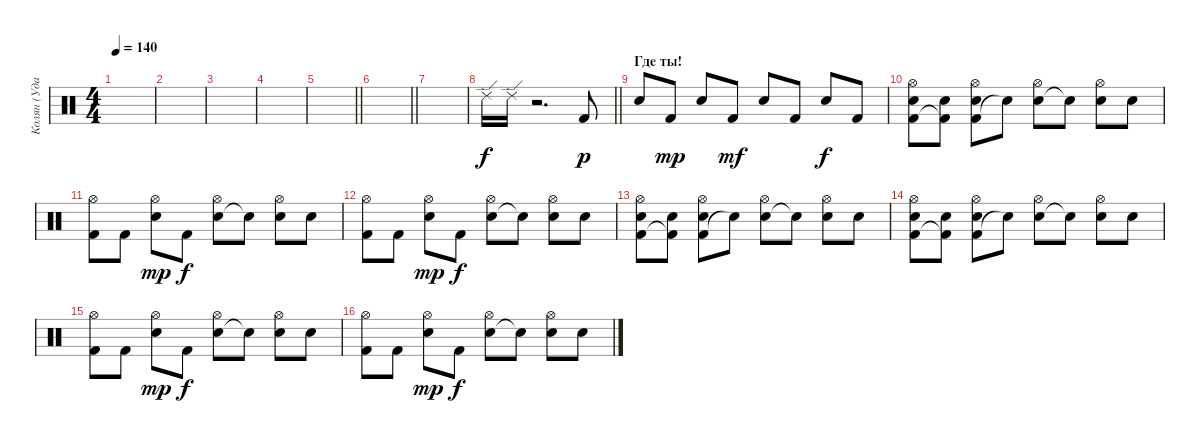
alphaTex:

\track ("Колян (Ударные)" "Колян (Уда") {instrument percussion}
\staff {score}
\articulation defaults
\ts (4 4)
\tempo 140
\clef neutral
\ks c
|
|
|
|
\barLineRight lightlight
|
\barLineRight lightlight
|
|
\barLineRight lightlight "Ride (edge) 2".16 "Ride (edge) 2".16
r.2{d} "Kick (hit) 2".8{dy p} |
\section ("" "Где ты!")
"Snare (hit) 2".8 "Kick (hit) 2".8{dy mp} "Snare (hit) 2".8 "Kick (hit) 2".8{dy mf} "Snare (hit) 2".8 "Kick (hit) 2".8 "Snare (hit) 2".8{dy f} "Kick (hit) 2".8 |
("Kick (hit) 2" "Snare (hit) 2" "Hi-Hat (open)").8 ("Kick (hit) 2"{t} "Snare (hit) 2").8 ("Kick (hit) 2" "Snare (hit) 2" "Hi-Hat (open)").8 "Snare (hit)"{t}.8 ("Snare (hit) 2" "Hi-Hat (open)").8 "Snare (hit)"{t}.8 ("Snare (hit) 2" "Hi-Hat (open)").8 "Snare (hit) 2".8 |
("Kick (hit) 2" "Hi-Hat (open)").8 "Kick (hit) 2".8 ("Snare (hit) 2" "Hi-Hat (open)").8{dy mp} "Kick (hit) 2".8{dy f} ("Snare (hit) 2" "Hi-Hat (open)").8 "Snare (hit)"{t}.8 ("Snare (hit) 2" "Hi-Hat (open)").8 "Snare (hit) 2".8 |
("Kick (hit) 2" "Hi-Hat (open)").8 "Kick (hit) 2".8 ("Snare (hit) 2" "Hi-Hat (open)").8{dy mp} "Kick (hit) 2".8{dy f} ("Snare (hit) 2" "Hi-Hat (open)").8 "Snare (hit)"{t}.8 ("Snare (hit) 2" "Hi-Hat (open)").8 "Snare (hit) 2".8 |
("Kick (hit) 2" "Snare (hit) 2" "Hi-Hat (open)").8 ("Kick (hit) 2"{t} "Snare (hit) 2").8 ("Kick (hit) 2" "Snare (hit) 2" "Hi-Hat (open)").8 "Snare (hit)"{t}.8 ("Snare (hit) 2" "Hi-Hat (open)").8 "Snare (hit)"{t}.8 ("Snare (hit) 2" "Hi-Hat (open)").8 "Snare (hit) 2".8 |
("Kick (hit) 2" "Snare (hit) 2" "Hi-Hat (open)").8 ("Kick (hit) 2"{t} "Snare (hit) 2").8 ("Kick (hit) 2" "Snare (hit) 2" "Hi-Hat (open)").8 "Snare (hit)"{t}.8 ("Snare (hit) 2" "Hi-Hat (open)").8 "Snare (hit)"{t}.8 ("Snare (hit) 2" "Hi-Hat (open)").8 "Snare (hit) 2".8 |
("Kick (hit) 2" "Hi-Hat (open)").8 "Kick (hit) 2".8 ("Snare (hit) 2" "Hi-Hat (open)").8{dy mp} "Kick (hit) 2".8{dy f} ("Snare (hit) 2" "Hi-Hat (open)").8 "Snare (hit)"{t}.8 ("Snare (hit) 2" "Hi-Hat (open)").8 "Snare (hit) 2".8 |
("Kick (hit) 2" "Hi-Hat (open)").8 "Kick (hit) 2".8 ("Snare (hit) 2" "Hi-Hat (open)").8{dy mp} "Kick (hit) 2".8{dy f} ("Snare (hit) 2" "Hi-Hat (open)").8 "Snare (hit)"{t}.8 ("Snare (hit) 2" "Hi-Hat (open)").8 "Snare (hit) 2".8
